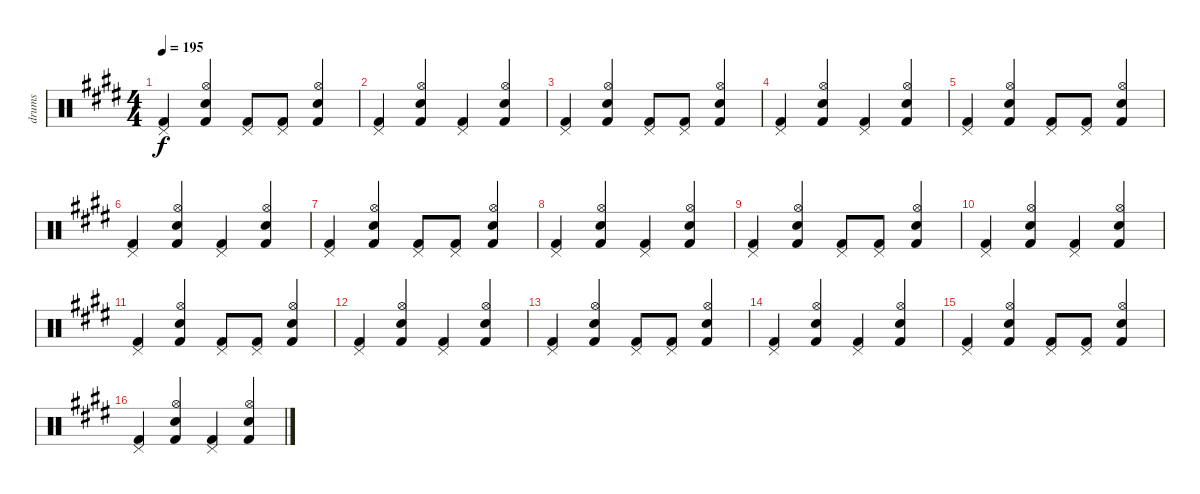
\track ("drums" "drums") {instrument percussion}
\staff {score}
\articulation defaults
\ts (4 4)
\tempo 195
\clef neutral
\ks e
("Pedal Hi-Hat (hit)" "Kick (hit) 2").4{dy f} ("Hi-Hat (open)" "Electric Snare (hit)" "Kick (hit) 2").4 ("Pedal Hi-Hat (hit)" "Kick (hit) 2").8 ("Pedal Hi-Hat (hit)" "Kick (hit) 2").8 ("Hi-Hat (open)" "Electric Snare (hit)" "Kick (hit) 2").4 |
("Pedal Hi-Hat (hit)" "Kick (hit) 2").4 ("Hi-Hat (open)" "Electric Snare (hit)" "Kick (hit) 2").4 ("Pedal Hi-Hat (hit)" "Kick (hit) 2").4 ("Hi-Hat (open)" "Electric Snare (hit)" "Kick (hit) 2").4 |
("Pedal Hi-Hat (hit)" "Kick (hit) 2").4 ("Hi-Hat (open)" "Electric Snare (hit)" "Kick (hit) 2").4 ("Pedal Hi-Hat (hit)" "Kick (hit) 2").8 ("Pedal Hi-Hat (hit)" "Kick (hit) 2").8 ("Hi-Hat (open)" "Electric Snare (hit)" "Kick (hit) 2").4 |
("Pedal Hi-Hat (hit)" "Kick (hit) 2").4 ("Hi-Hat (open)" "Electric Snare (hit)" "Kick (hit) 2").4 ("Pedal Hi-Hat (hit)" "Kick (hit) 2").4 ("Hi-Hat (open)" "Electric Snare (hit)" "Kick (hit) 2").4 |
("Pedal Hi-Hat (hit)" "Kick (hit) 2").4 ("Hi-Hat (open)" "Electric Snare (hit)" "Kick (hit) 2").4 ("Pedal Hi-Hat (hit)" "Kick (hit) 2").8 ("Pedal Hi-Hat (hit)" "Kick (hit) 2").8 ("Hi-Hat (open)" "Electric Snare (hit)" "Kick (hit) 2").4 |
("Pedal Hi-Hat (hit)" "Kick (hit) 2").4 ("Hi-Hat (open)" "Electric Snare (hit)" "Kick (hit) 2").4 ("Pedal Hi-Hat (hit)" "Kick (hit) 2").4 ("Hi-Hat (open)" "Electric Snare (hit)" "Kick (hit) 2").4 |
("Pedal Hi-Hat (hit)" "Kick (hit) 2").4 ("Hi-Hat (open)" "Electric Snare (hit)" "Kick (hit) 2").4 ("Pedal Hi-Hat (hit)" "Kick (hit) 2").8 ("Pedal Hi-Hat (hit)" "Kick (hit) 2").8 ("Hi-Hat (open)" "Electric Snare (hit)" "Kick (hit) 2").4 |
("Pedal Hi-Hat (hit)" "Kick (hit) 2").4 ("Hi-Hat (open)" "Electric Snare (hit)" "Kick (hit) 2").4 ("Pedal Hi-Hat (hit)" "Kick (hit) 2").4 ("Hi-Hat (open)" "Electric Snare (hit)" "Kick (hit) 2").4 |
("Pedal Hi-Hat (hit)" "Kick (hit) 2").4 ("Hi-Hat (open)" "Electric Snare (hit)" "Kick (hit) 2").4 ("Pedal Hi-Hat (hit)" "Kick (hit) 2").8 ("Pedal Hi-Hat (hit)" "Kick (hit) 2").8 ("Hi-Hat (open)" "Electric Snare (hit)" "Kick (hit) 2").4 |
("Pedal Hi-Hat (hit)" "Kick (hit) 2").4 ("Hi-Hat (open)" "Electric Snare (hit)" "Kick (hit) 2").4 ("Pedal Hi-Hat (hit)" "Kick (hit) 2").4 ("Hi-Hat (open)" "Electric Snare (hit)" "Kick (hit) 2").4 |
("Pedal Hi-Hat (hit)" "Kick (hit) 2").4 ("Hi-Hat (open)" "Electric Snare (hit)" "Kick (hit) 2").4 ("Pedal Hi-Hat (hit)" "Kick (hit) 2").8 ("Pedal Hi-Hat (hit)" "Kick (hit) 2").8 ("Hi-Hat (open)" "Electric Snare (hit)" "Kick (hit) 2").4 |
("Pedal Hi-Hat (hit)" "Kick (hit) 2").4 ("Hi-Hat (open)" "Electric Snare (hit)" "Kick (hit) 2").4 ("Pedal Hi-Hat (hit)" "Kick (hit) 2").4 ("Hi-Hat (open)" "Electric Snare (hit)" "Kick (hit) 2").4 |
("Pedal Hi-Hat (hit)" "Kick (hit) 2").4 ("Hi-Hat (open)" "Electric Snare (hit)" "Kick (hit) 2").4 ("Pedal Hi-Hat (hit)" "Kick (hit) 2").8 ("Pedal Hi-Hat (hit)" "Kick (hit) 2").8 ("Hi-Hat (open)" "Electric Snare (hit)" "Kick (hit) 2").4 |
("Pedal Hi-Hat (hit)" "Kick (hit) 2").4 ("Hi-Hat (open)" "Electric Snare (hit)" "Kick (hit) 2").4 ("Pedal Hi-Hat (hit)" "Kick (hit) 2").4 ("Hi-Hat (open)" "Electric Snare (hit)" "Kick (hit) 2").4 |
("Pedal Hi-Hat (hit)" "Kick (hit) 2").4 ("Hi-Hat (open)" "Electric Snare (hit)" "Kick (hit) 2").4 ("Pedal Hi-Hat (hit)" "Kick (hit) 2").8 ("Pedal Hi-Hat (hit)" "Kick (hit) 2").8 ("Hi-Hat (open)" "Electric Snare (hit)" "Kick (hit) 2").4 |
("Pedal Hi-Hat (hit)" "Kick (hit) 2").4 ("Hi-Hat (open)" "Electric Snare (hit)" "Kick (hit) 2").4 ("Pedal Hi-Hat (hit)" "Kick (hit) 2").4 ("Hi-Hat (open)" "Electric Snare (hit)" "Kick (hit) 2").4
